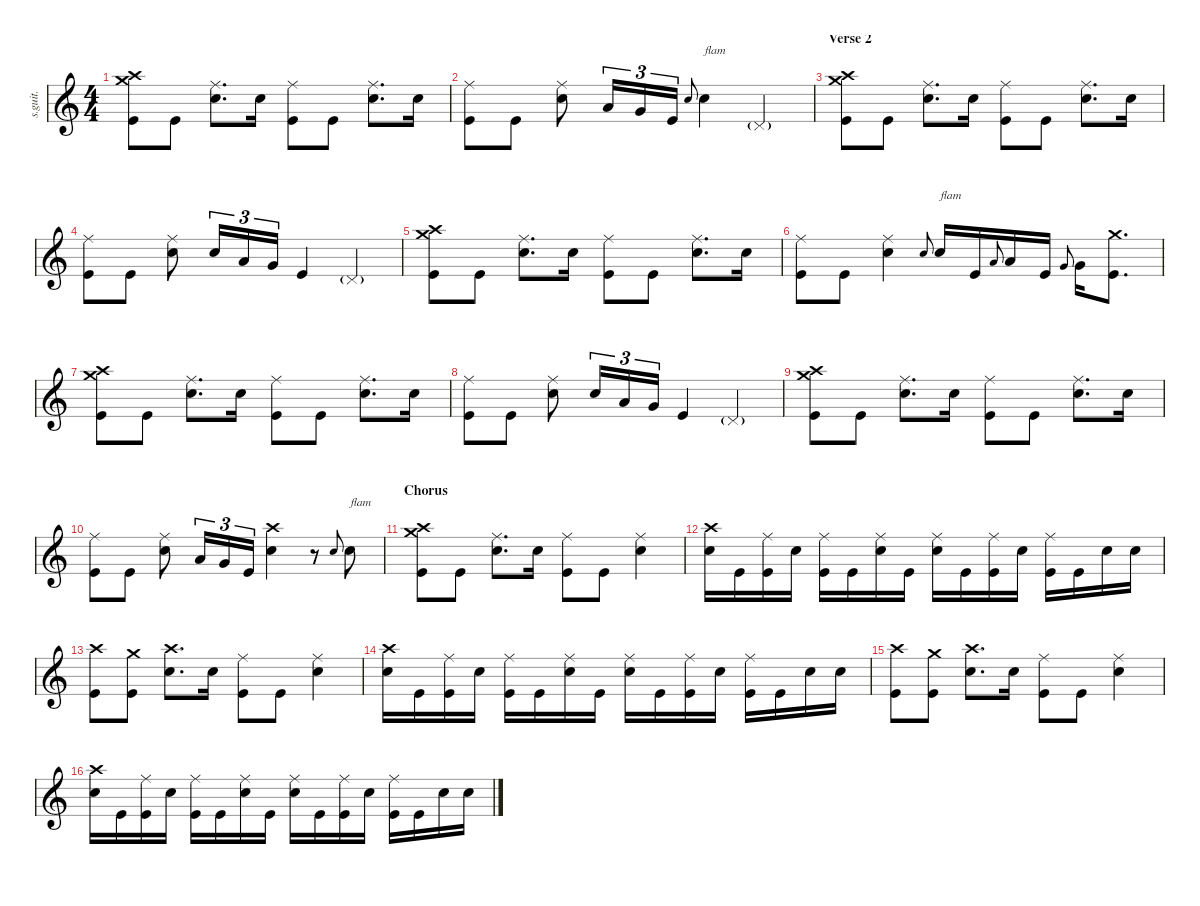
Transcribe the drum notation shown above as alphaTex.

\defaultSystemsLayout 4
\hideDynamics
\bracketExtendMode nobrackets
\track ("Dave Grohl" "s.guit.") {instrument percussion}
\staff {score}
\articulation defaults
\ts (4 4)
\tempo (105 hide)
\clef g2
\ks c
("Crash high (hit)" "Crash medium (hit)" "Kick (hit)").8{lyrics (0 "") lyrics (1 "") lyrics (2 "") lyrics (3 "") lyrics (4 "") dy mf} "Kick (hit)".8{lyrics (0 "") lyrics (1 "") lyrics (2 "") lyrics (3 "") lyrics (4 "") dy f} ("Ride (middle)" "Snare (hit) 2").8{d lyrics (0 "") lyrics (1 "") lyrics (2 "") lyrics (3 "") lyrics (4 "")} "Snare (hit) 2".16{lyrics (0 "") lyrics (1 "") lyrics (2 "") lyrics (3 "") lyrics (4 "")} ("Ride (middle)" "Kick (hit)").8{lyrics (0 "") lyrics (1 "") lyrics (2 "") lyrics (3 "") lyrics (4 "")} "Kick (hit)".8{lyrics (0 "") lyrics (1 "") lyrics (2 "") lyrics (3 "") lyrics (4 "")} ("Ride (middle)" "Snare (hit) 2").8{d lyrics (0 "") lyrics (1 "") lyrics (2 "") lyrics (3 "") lyrics (4 "")} "Snare (hit) 2".16{lyrics (0 "") lyrics (1 "") lyrics (2 "") lyrics (3 "") lyrics (4 "")} |
("Ride (middle)" "Kick (hit)").8{lyrics (0 "") lyrics (1 "") lyrics (2 "") lyrics (3 "") lyrics (4 "")} "Kick (hit)".8{lyrics (0 "") lyrics (1 "") lyrics (2 "") lyrics (3 "") lyrics (4 "")} ("Ride (middle)" "Snare (hit) 2").8{lyrics (0 "") lyrics (1 "") lyrics (2 "") lyrics (3 "") lyrics (4 "")} "Low Floor Tom (hit)".16{tu (3 2) lyrics (0 "") lyrics (1 "") lyrics (2 "") lyrics (3 "") lyrics (4 "")} "Very Low Tom (hit)".16{tu (3 2) lyrics (0 "") lyrics (1 "") lyrics (2 "") lyrics (3 "") lyrics (4 "")} "Kick (hit)".16{tu (3 2) lyrics (0 "") lyrics (1 "") lyrics (2 "") lyrics (3 "") lyrics (4 "")} "Snare (hit) 2".8{lyrics (0 "") lyrics (1 "") lyrics (2 "") lyrics (3 "") lyrics (4 "") gr onbeat} "Snare (hit) 2".4{txt "flam" lyrics (0 "") lyrics (1 "") lyrics (2 "") lyrics (3 "") lyrics (4 "")} "Pedal Hi-Hat (hit)"{g}.4{lyrics (0 "") lyrics (1 "") lyrics (2 "") lyrics (3 "") lyrics (4 "")} |
\section ("" "Verse 2")
("Crash high (hit)" "Crash medium (hit)" "Kick (hit)").8{lyrics (0 "") lyrics (1 "") lyrics (2 "") lyrics (3 "") lyrics (4 "")} "Kick (hit)".8{lyrics (0 "") lyrics (1 "") lyrics (2 "") lyrics (3 "") lyrics (4 "")} ("Ride (middle)" "Snare (hit) 2").8{d lyrics (0 "") lyrics (1 "") lyrics (2 "") lyrics (3 "") lyrics (4 "")} "Snare (hit) 2".16{lyrics (0 "") lyrics (1 "") lyrics (2 "") lyrics (3 "") lyrics (4 "")} ("Ride (middle)" "Kick (hit)").8{lyrics (0 "") lyrics (1 "") lyrics (2 "") lyrics (3 "") lyrics (4 "")} "Kick (hit)".8{lyrics (0 "") lyrics (1 "") lyrics (2 "") lyrics (3 "") lyrics (4 "")} ("Ride (middle)" "Snare (hit) 2").8{d lyrics (0 "") lyrics (1 "") lyrics (2 "") lyrics (3 "") lyrics (4 "")} "Snare (hit) 2".16{lyrics (0 "") lyrics (1 "") lyrics (2 "") lyrics (3 "") lyrics (4 "")} |
("Ride (middle)" "Kick (hit)").8{lyrics (0 "") lyrics (1 "") lyrics (2 "") lyrics (3 "") lyrics (4 "")} "Kick (hit)".8{lyrics (0 "") lyrics (1 "") lyrics (2 "") lyrics (3 "") lyrics (4 "")} ("Ride (middle)" "Snare (hit) 2").8{lyrics (0 "") lyrics (1 "") lyrics (2 "") lyrics (3 "") lyrics (4 "")} "Snare (hit) 2".16{tu (3 2) lyrics (0 "") lyrics (1 "") lyrics (2 "") lyrics (3 "") lyrics (4 "")} "Low Floor Tom (hit)".16{tu (3 2) lyrics (0 "") lyrics (1 "") lyrics (2 "") lyrics (3 "") lyrics (4 "")} "Very Low Tom (hit)".16{tu (3 2) lyrics (0 "") lyrics (1 "") lyrics (2 "") lyrics (3 "") lyrics (4 "")} "Kick (hit)".4{lyrics (0 "") lyrics (1 "") lyrics (2 "") lyrics (3 "") lyrics (4 "")} "Pedal Hi-Hat (hit)"{g}.4{lyrics (0 "") lyrics (1 "") lyrics (2 "") lyrics (3 "") lyrics (4 "")} |
("Crash high (hit)" "Crash medium (hit)" "Kick (hit)").8{lyrics (0 "") lyrics (1 "") lyrics (2 "") lyrics (3 "") lyrics (4 "") dy mf} "Kick (hit)".8{lyrics (0 "") lyrics (1 "") lyrics (2 "") lyrics (3 "") lyrics (4 "") dy f} ("Ride (middle)" "Snare (hit) 2").8{d lyrics (0 "") lyrics (1 "") lyrics (2 "") lyrics (3 "") lyrics (4 "")} "Snare (hit) 2".16{lyrics (0 "") lyrics (1 "") lyrics (2 "") lyrics (3 "") lyrics (4 "")} ("Ride (middle)" "Kick (hit)").8{lyrics (0 "") lyrics (1 "") lyrics (2 "") lyrics (3 "") lyrics (4 "")} "Kick (hit)".8{lyrics (0 "") lyrics (1 "") lyrics (2 "") lyrics (3 "") lyrics (4 "")} ("Ride (middle)" "Snare (hit) 2").8{d lyrics (0 "") lyrics (1 "") lyrics (2 "") lyrics (3 "") lyrics (4 "")} "Snare (hit) 2".16{lyrics (0 "") lyrics (1 "") lyrics (2 "") lyrics (3 "") lyrics (4 "")} |
("Ride (middle)" "Kick (hit)").8{lyrics (0 "") lyrics (1 "") lyrics (2 "") lyrics (3 "") lyrics (4 "")} "Kick (hit)".8{lyrics (0 "") lyrics (1 "") lyrics (2 "") lyrics (3 "") lyrics (4 "")} ("Ride (middle)" "Snare (hit) 2").4{lyrics (0 "") lyrics (1 "") lyrics (2 "") lyrics (3 "") lyrics (4 "")} "Snare (hit) 2".8{lyrics (0 "") lyrics (1 "") lyrics (2 "") lyrics (3 "") lyrics (4 "") gr onbeat} "Snare (hit) 2".16{txt "flam" lyrics (0 "") lyrics (1 "") lyrics (2 "") lyrics (3 "") lyrics (4 "")} "Kick (hit)".16{lyrics (0 "") lyrics (1 "") lyrics (2 "") lyrics (3 "") lyrics (4 "")} "Low Floor Tom (hit)".8{lyrics (0 "") lyrics (1 "") lyrics (2 "") lyrics (3 "") lyrics (4 "") gr onbeat} "Low Floor Tom (hit)".16{lyrics (0 "") lyrics (1 "") lyrics (2 "") lyrics (3 "") lyrics (4 "")} "Kick (hit)".16{lyrics (0 "") lyrics (1 "") lyrics (2 "") lyrics (3 "") lyrics (4 "")} "Very Low Tom (hit)".8{lyrics (0 "") lyrics (1 "") lyrics (2 "") lyrics (3 "") lyrics (4 "") gr onbeat} "Very Low Tom (hit)".16{lyrics (0 "") lyrics (1 "") lyrics (2 "") lyrics (3 "") lyrics (4 "")} ("Crash medium (hit)" "Kick (hit)").8{d lyrics (0 "") lyrics (1 "") lyrics (2 "") lyrics (3 "") lyrics (4 "") dy mf} |
("Crash high (hit)" "Crash medium (hit)" "Kick (hit)").8{lyrics (0 "") lyrics (1 "") lyrics (2 "") lyrics (3 "") lyrics (4 "")} "Kick (hit)".8{lyrics (0 "") lyrics (1 "") lyrics (2 "") lyrics (3 "") lyrics (4 "") dy f} ("Ride (middle)" "Snare (hit) 2").8{d lyrics (0 "") lyrics (1 "") lyrics (2 "") lyrics (3 "") lyrics (4 "")} "Snare (hit) 2".16{lyrics (0 "") lyrics (1 "") lyrics (2 "") lyrics (3 "") lyrics (4 "")} ("Ride (middle)" "Kick (hit)").8{lyrics (0 "") lyrics (1 "") lyrics (2 "") lyrics (3 "") lyrics (4 "")} "Kick (hit)".8{lyrics (0 "") lyrics (1 "") lyrics (2 "") lyrics (3 "") lyrics (4 "")} ("Ride (middle)" "Snare (hit) 2").8{d lyrics (0 "") lyrics (1 "") lyrics (2 "") lyrics (3 "") lyrics (4 "")} "Snare (hit) 2".16{lyrics (0 "") lyrics (1 "") lyrics (2 "") lyrics (3 "") lyrics (4 "")} |
("Ride (middle)" "Kick (hit)").8{lyrics (0 "") lyrics (1 "") lyrics (2 "") lyrics (3 "") lyrics (4 "")} "Kick (hit)".8{lyrics (0 "") lyrics (1 "") lyrics (2 "") lyrics (3 "") lyrics (4 "")} ("Ride (middle)" "Snare (hit) 2").8{lyrics (0 "") lyrics (1 "") lyrics (2 "") lyrics (3 "") lyrics (4 "")} "Snare (hit) 2".16{tu (3 2) lyrics (0 "") lyrics (1 "") lyrics (2 "") lyrics (3 "") lyrics (4 "")} "Low Floor Tom (hit)".16{tu (3 2) lyrics (0 "") lyrics (1 "") lyrics (2 "") lyrics (3 "") lyrics (4 "")} "Very Low Tom (hit)".16{tu (3 2) lyrics (0 "") lyrics (1 "") lyrics (2 "") lyrics (3 "") lyrics (4 "")} "Kick (hit)".4{lyrics (0 "") lyrics (1 "") lyrics (2 "") lyrics (3 "") lyrics (4 "")} "Pedal Hi-Hat (hit)"{g}.4{lyrics (0 "") lyrics (1 "") lyrics (2 "") lyrics (3 "") lyrics (4 "")} |
("Crash high (hit)" "Crash medium (hit)" "Kick (hit)").8{lyrics (0 "") lyrics (1 "") lyrics (2 "") lyrics (3 "") lyrics (4 "") dy mf} "Kick (hit)".8{lyrics (0 "") lyrics (1 "") lyrics (2 "") lyrics (3 "") lyrics (4 "") dy f} ("Ride (middle)" "Snare (hit) 2").8{d lyrics (0 "") lyrics (1 "") lyrics (2 "") lyrics (3 "") lyrics (4 "")} "Snare (hit) 2".16{lyrics (0 "") lyrics (1 "") lyrics (2 "") lyrics (3 "") lyrics (4 "")} ("Ride (middle)" "Kick (hit)").8{lyrics (0 "") lyrics (1 "") lyrics (2 "") lyrics (3 "") lyrics (4 "")} "Kick (hit)".8{lyrics (0 "") lyrics (1 "") lyrics (2 "") lyrics (3 "") lyrics (4 "")} ("Ride (middle)" "Snare (hit) 2").8{d lyrics (0 "") lyrics (1 "") lyrics (2 "") lyrics (3 "") lyrics (4 "")} "Snare (hit) 2".16{lyrics (0 "") lyrics (1 "") lyrics (2 "") lyrics (3 "") lyrics (4 "")} |
("Ride (middle)" "Kick (hit)").8{lyrics (0 "") lyrics (1 "") lyrics (2 "") lyrics (3 "") lyrics (4 "")} "Kick (hit)".8{lyrics (0 "") lyrics (1 "") lyrics (2 "") lyrics (3 "") lyrics (4 "")} ("Ride (middle)" "Snare (hit) 2").8{lyrics (0 "") lyrics (1 "") lyrics (2 "") lyrics (3 "") lyrics (4 "")} "Low Floor Tom (hit)".16{tu (3 2) lyrics (0 "") lyrics (1 "") lyrics (2 "") lyrics (3 "") lyrics (4 "")} "Very Low Tom (hit)".16{tu (3 2) lyrics (0 "") lyrics (1 "") lyrics (2 "") lyrics (3 "") lyrics (4 "")} "Kick (hit)".16{tu (3 2) lyrics (0 "") lyrics (1 "") lyrics (2 "") lyrics (3 "") lyrics (4 "")} ("Crash high (hit)" "Snare (hit) 2").4{lyrics (0 "") lyrics (1 "") lyrics (2 "") lyrics (3 "") lyrics (4 "") dy mf} r.8 "Snare (hit) 2".8{lyrics (0 "") lyrics (1 "") lyrics (2 "") lyrics (3 "") lyrics (4 "") gr onbeat dy f} "Snare (hit) 2".8{txt "flam" lyrics (0 "") lyrics (1 "") lyrics (2 "") lyrics (3 "") lyrics (4 "")} |
\section ("" "Chorus")
("Crash high (hit)" "Crash medium (hit)" "Kick (hit)").8{lyrics (0 "") lyrics (1 "") lyrics (2 "") lyrics (3 "") lyrics (4 "")} "Kick (hit)".8{lyrics (0 "") lyrics (1 "") lyrics (2 "") lyrics (3 "") lyrics (4 "")} ("Ride (middle)" "Snare (hit) 2").8{d lyrics (0 "") lyrics (1 "") lyrics (2 "") lyrics (3 "") lyrics (4 "")} "Snare (hit) 2".16{lyrics (0 "") lyrics (1 "") lyrics (2 "") lyrics (3 "") lyrics (4 "")} ("Ride (middle)" "Kick (hit)").8{lyrics (0 "") lyrics (1 "") lyrics (2 "") lyrics (3 "") lyrics (4 "")} "Kick (hit)".8{lyrics (0 "") lyrics (1 "") lyrics (2 "") lyrics (3 "") lyrics (4 "")} ("Ride (middle)" "Snare (hit) 2").4{lyrics (0 "") lyrics (1 "") lyrics (2 "") lyrics (3 "") lyrics (4 "")} |
("Crash high (hit)" "Snare (hit) 2").16{lyrics (0 "") lyrics (1 "") lyrics (2 "") lyrics (3 "") lyrics (4 "")} "Kick (hit)".16{lyrics (0 "") lyrics (1 "") lyrics (2 "") lyrics (3 "") lyrics (4 "")} ("Ride (middle)" "Kick (hit)").16{lyrics (0 "") lyrics (1 "") lyrics (2 "") lyrics (3 "") lyrics (4 "")} "Snare (hit) 2".16{lyrics (0 "") lyrics (1 "") lyrics (2 "") lyrics (3 "") lyrics (4 "")} ("Ride (middle)" "Kick (hit)").16{lyrics (0 "") lyrics (1 "") lyrics (2 "") lyrics (3 "") lyrics (4 "")} "Kick (hit)".16{lyrics (0 "") lyrics (1 "") lyrics (2 "") lyrics (3 "") lyrics (4 "")} ("Ride (middle)" "Snare (hit) 2").16{lyrics (0 "") lyrics (1 "") lyrics (2 "") lyrics (3 "") lyrics (4 "")} "Kick (hit)".16{lyrics (0 "") lyrics (1 "") lyrics (2 "") lyrics (3 "") lyrics (4 "")} ("Ride (middle)" "Snare (hit) 2").16{lyrics (0 "") lyrics (1 "") lyrics (2 "") lyrics (3 "") lyrics (4 "")} "Kick (hit)".16{lyrics (0 "") lyrics (1 "") lyrics (2 "") lyrics (3 "") lyrics (4 "")} ("Ride (middle)" "Kick (hit)").16{lyrics (0 "") lyrics (1 "") lyrics (2 "") lyrics (3 "") lyrics (4 "")} "Snare (hit) 2".16{lyrics (0 "") lyrics (1 "") lyrics (2 "") lyrics (3 "") lyrics (4 "")} ("Ride (middle)" "Kick (hit)").16{lyrics (0 "") lyrics (1 "") lyrics (2 "") lyrics (3 "") lyrics (4 "")} "Kick (hit)".16{lyrics (0 "") lyrics (1 "") lyrics (2 "") lyrics (3 "") lyrics (4 "")} "Snare (hit) 2".16{lyrics (0 "") lyrics (1 "") lyrics (2 "") lyrics (3 "") lyrics (4 "")} "Snare (hit) 2".16{lyrics (0 "") lyrics (1 "") lyrics (2 "") lyrics (3 "") lyrics (4 "")} |
("Crash high (hit)" "Kick (hit)").8{lyrics (0 "") lyrics (1 "") lyrics (2 "") lyrics (3 "") lyrics (4 "")} ("Kick (hit)" "Crash medium (hit)").8{lyrics (0 "") lyrics (1 "") lyrics (2 "") lyrics (3 "") lyrics (4 "")} ("Snare (hit) 2" "Crash high (hit)").8{d lyrics (0 "") lyrics (1 "") lyrics (2 "") lyrics (3 "") lyrics (4 "")} "Snare (hit) 2".16{lyrics (0 "") lyrics (1 "") lyrics (2 "") lyrics (3 "") lyrics (4 "")} ("Ride (middle)" "Kick (hit)").8{lyrics (0 "") lyrics (1 "") lyrics (2 "") lyrics (3 "") lyrics (4 "")} "Kick (hit)".8{lyrics (0 "") lyrics (1 "") lyrics (2 "") lyrics (3 "") lyrics (4 "")} ("Ride (middle)" "Snare (hit) 2").4{lyrics (0 "") lyrics (1 "") lyrics (2 "") lyrics (3 "") lyrics (4 "")} |
("Crash high (hit)" "Snare (hit) 2").16{lyrics (0 "") lyrics (1 "") lyrics (2 "") lyrics (3 "") lyrics (4 "")} "Kick (hit)".16{lyrics (0 "") lyrics (1 "") lyrics (2 "") lyrics (3 "") lyrics (4 "")} ("Ride (middle)" "Kick (hit)").16{lyrics (0 "") lyrics (1 "") lyrics (2 "") lyrics (3 "") lyrics (4 "")} "Snare (hit) 2".16{lyrics (0 "") lyrics (1 "") lyrics (2 "") lyrics (3 "") lyrics (4 "")} ("Ride (middle)" "Kick (hit)").16{lyrics (0 "") lyrics (1 "") lyrics (2 "") lyrics (3 "") lyrics (4 "")} "Kick (hit)".16{lyrics (0 "") lyrics (1 "") lyrics (2 "") lyrics (3 "") lyrics (4 "")} ("Ride (middle)" "Snare (hit) 2").16{lyrics (0 "") lyrics (1 "") lyrics (2 "") lyrics (3 "") lyrics (4 "")} "Kick (hit)".16{lyrics (0 "") lyrics (1 "") lyrics (2 "") lyrics (3 "") lyrics (4 "")} ("Ride (middle)" "Snare (hit) 2").16{lyrics (0 "") lyrics (1 "") lyrics (2 "") lyrics (3 "") lyrics (4 "")} "Kick (hit)".16{lyrics (0 "") lyrics (1 "") lyrics (2 "") lyrics (3 "") lyrics (4 "")} ("Ride (middle)" "Kick (hit)").16{lyrics (0 "") lyrics (1 "") lyrics (2 "") lyrics (3 "") lyrics (4 "")} "Snare (hit) 2".16{lyrics (0 "") lyrics (1 "") lyrics (2 "") lyrics (3 "") lyrics (4 "")} ("Ride (middle)" "Kick (hit)").16{lyrics (0 "") lyrics (1 "") lyrics (2 "") lyrics (3 "") lyrics (4 "")} "Kick (hit)".16{lyrics (0 "") lyrics (1 "") lyrics (2 "") lyrics (3 "") lyrics (4 "")} "Snare (hit) 2".16{lyrics (0 "") lyrics (1 "") lyrics (2 "") lyrics (3 "") lyrics (4 "")} "Snare (hit) 2".16{lyrics (0 "") lyrics (1 "") lyrics (2 "") lyrics (3 "") lyrics (4 "")} |
("Crash high (hit)" "Kick (hit)").8{lyrics (0 "") lyrics (1 "") lyrics (2 "") lyrics (3 "") lyrics (4 "")} ("Kick (hit)" "Crash medium (hit)").8{lyrics (0 "") lyrics (1 "") lyrics (2 "") lyrics (3 "") lyrics (4 "")} ("Snare (hit) 2" "Crash high (hit)").8{d lyrics (0 "") lyrics (1 "") lyrics (2 "") lyrics (3 "") lyrics (4 "")} "Snare (hit) 2".16{lyrics (0 "") lyrics (1 "") lyrics (2 "") lyrics (3 "") lyrics (4 "")} ("Ride (middle)" "Kick (hit)").8{lyrics (0 "") lyrics (1 "") lyrics (2 "") lyrics (3 "") lyrics (4 "")} "Kick (hit)".8{lyrics (0 "") lyrics (1 "") lyrics (2 "") lyrics (3 "") lyrics (4 "")} ("Ride (middle)" "Snare (hit) 2").4{lyrics (0 "") lyrics (1 "") lyrics (2 "") lyrics (3 "") lyrics (4 "")} |
("Crash high (hit)" "Snare (hit) 2").16{lyrics (0 "") lyrics (1 "") lyrics (2 "") lyrics (3 "") lyrics (4 "")} "Kick (hit)".16{lyrics (0 "") lyrics (1 "") lyrics (2 "") lyrics (3 "") lyrics (4 "")} ("Ride (middle)" "Kick (hit)").16{lyrics (0 "") lyrics (1 "") lyrics (2 "") lyrics (3 "") lyrics (4 "")} "Snare (hit) 2".16{lyrics (0 "") lyrics (1 "") lyrics (2 "") lyrics (3 "") lyrics (4 "")} ("Ride (middle)" "Kick (hit)").16{lyrics (0 "") lyrics (1 "") lyrics (2 "") lyrics (3 "") lyrics (4 "")} "Kick (hit)".16{lyrics (0 "") lyrics (1 "") lyrics (2 "") lyrics (3 "") lyrics (4 "")} ("Ride (middle)" "Snare (hit) 2").16{lyrics (0 "") lyrics (1 "") lyrics (2 "") lyrics (3 "") lyrics (4 "")} "Kick (hit)".16{lyrics (0 "") lyrics (1 "") lyrics (2 "") lyrics (3 "") lyrics (4 "")} ("Ride (middle)" "Snare (hit) 2").16{lyrics (0 "") lyrics (1 "") lyrics (2 "") lyrics (3 "") lyrics (4 "")} "Kick (hit)".16{lyrics (0 "") lyrics (1 "") lyrics (2 "") lyrics (3 "") lyrics (4 "")} ("Ride (middle)" "Kick (hit)").16{lyrics (0 "") lyrics (1 "") lyrics (2 "") lyrics (3 "") lyrics (4 "")} "Snare (hit) 2".16{lyrics (0 "") lyrics (1 "") lyrics (2 "") lyrics (3 "") lyrics (4 "")} ("Ride (middle)" "Kick (hit)").16{lyrics (0 "") lyrics (1 "") lyrics (2 "") lyrics (3 "") lyrics (4 "")} "Kick (hit)".16{lyrics (0 "") lyrics (1 "") lyrics (2 "") lyrics (3 "") lyrics (4 "")} "Snare (hit) 2".16{lyrics (0 "") lyrics (1 "") lyrics (2 "") lyrics (3 "") lyrics (4 "")} "Snare (hit) 2".16{lyrics (0 "") lyrics (1 "") lyrics (2 "") lyrics (3 "") lyrics (4 "")}
